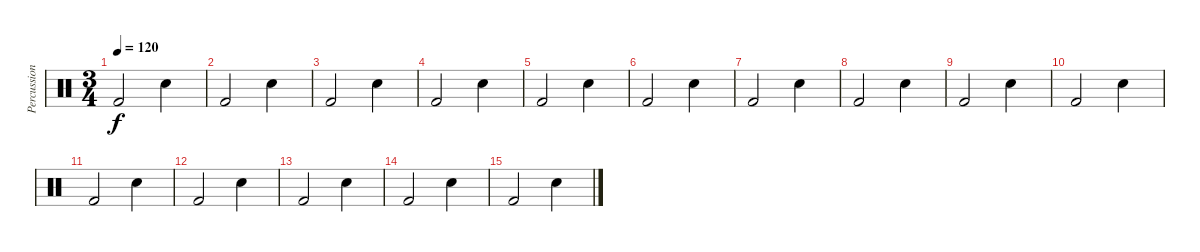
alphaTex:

\track ("Percussion" "Percussion") {instrument percussion}
\staff {score}
\articulation defaults
\ts (3 4)
\tempo 120
\clef neutral
\ks c "Kick (hit) 2".2{dy f} "Snare (hit) 2".4
|
"Kick (hit) 2".2 "Snare (hit) 2".4 |
"Kick (hit) 2".2 "Snare (hit) 2".4 |
"Kick (hit) 2".2 "Snare (hit) 2".4 |
"Kick (hit) 2".2 "Snare (hit) 2".4 |
"Kick (hit) 2".2 "Snare (hit) 2".4 |
"Kick (hit) 2".2 "Snare (hit) 2".4 |
"Kick (hit) 2".2 "Snare (hit) 2".4 |
"Kick (hit) 2".2 "Snare (hit) 2".4 |
"Kick (hit) 2".2 "Snare (hit) 2".4 |
"Kick (hit) 2".2 "Snare (hit) 2".4 |
"Kick (hit) 2".2 "Snare (hit) 2".4 |
"Kick (hit) 2".2 "Snare (hit) 2".4 |
"Kick (hit) 2".2 "Snare (hit) 2".4 |
"Kick (hit) 2".2 "Snare (hit) 2".4
